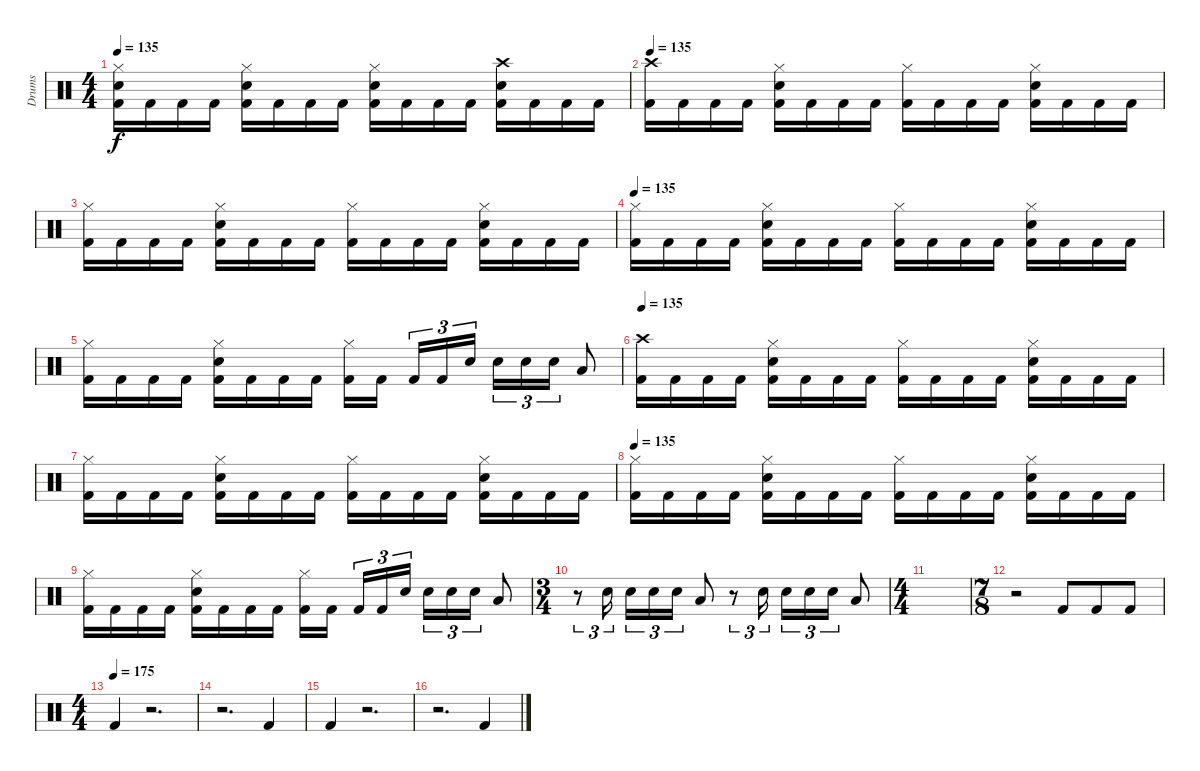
\track ("Drums" "Drums") {instrument percussion}
\staff {score}
\articulation defaults
\ts (4 4)
\tempo 135
\clef neutral
\ks c
("Hi-Hat (closed)" "Electric Snare (hit)" "Kick (hit) 2").16{dy f} "Kick (hit) 2".16 "Kick (hit) 2".16 "Kick (hit) 2".16 ("Hi-Hat (closed)" "Electric Snare (hit)" "Kick (hit) 2").16 "Kick (hit) 2".16 "Kick (hit) 2".16 "Kick (hit) 2".16 ("Hi-Hat (closed)" "Electric Snare (hit)" "Kick (hit) 2").16 "Kick (hit) 2".16 "Kick (hit) 2".16 "Kick (hit) 2".16 ("Crash high (hit)" "Electric Snare (hit)" "Kick (hit) 2").16 "Kick (hit) 2".16 "Kick (hit) 2".16 "Kick (hit) 2".16 |
\tempo 135
("Crash high (hit)" "Kick (hit) 2").16 "Kick (hit) 2".16 "Kick (hit) 2".16 "Kick (hit) 2".16 ("Hi-Hat (closed)" "Electric Snare (hit)" "Kick (hit) 2").16 "Kick (hit) 2".16 "Kick (hit) 2".16 "Kick (hit) 2".16 ("Hi-Hat (closed)" "Kick (hit) 2").16 "Kick (hit) 2".16 "Kick (hit) 2".16 "Kick (hit) 2".16 ("Hi-Hat (closed)" "Electric Snare (hit)" "Kick (hit) 2").16 "Kick (hit) 2".16 "Kick (hit) 2".16 "Kick (hit) 2".16 |
("Hi-Hat (closed)" "Kick (hit) 2").16 "Kick (hit) 2".16 "Kick (hit) 2".16 "Kick (hit) 2".16 ("Hi-Hat (closed)" "Electric Snare (hit)" "Kick (hit) 2").16 "Kick (hit) 2".16 "Kick (hit) 2".16 "Kick (hit) 2".16 ("Hi-Hat (closed)" "Kick (hit) 2").16 "Kick (hit) 2".16 "Kick (hit) 2".16 "Kick (hit) 2".16 ("Hi-Hat (closed)" "Electric Snare (hit)" "Kick (hit) 2").16 "Kick (hit) 2".16 "Kick (hit) 2".16 "Kick (hit) 2".16 |
\tempo 135
("Hi-Hat (closed)" "Kick (hit) 2").16 "Kick (hit) 2".16 "Kick (hit) 2".16 "Kick (hit) 2".16 ("Hi-Hat (closed)" "Electric Snare (hit)" "Kick (hit) 2").16 "Kick (hit) 2".16 "Kick (hit) 2".16 "Kick (hit) 2".16 ("Hi-Hat (closed)" "Kick (hit) 2").16 "Kick (hit) 2".16 "Kick (hit) 2".16 "Kick (hit) 2".16 ("Hi-Hat (closed)" "Electric Snare (hit)" "Kick (hit) 2").16 "Kick (hit) 2".16 "Kick (hit) 2".16 "Kick (hit) 2".16 |
("Hi-Hat (closed)" "Kick (hit) 2").16 "Kick (hit) 2".16 "Kick (hit) 2".16 "Kick (hit) 2".16 ("Hi-Hat (closed)" "Electric Snare (hit)" "Kick (hit) 2").16 "Kick (hit) 2".16 "Kick (hit) 2".16 "Kick (hit) 2".16 ("Hi-Hat (closed)" "Kick (hit) 2").16 "Kick (hit) 2".16 "Kick (hit) 2".16{tu (3 2)} "Kick (hit) 2".16{tu (3 2)} "Electric Snare (hit)".16{tu (3 2)} "Electric Snare (hit)".16{tu (3 2)} "Electric Snare (hit)".16{tu (3 2)} "Electric Snare (hit)".16{tu (3 2)} "Low Tom (hit)".8 |
\tempo 135
("Crash high (hit)" "Kick (hit) 2").16 "Kick (hit) 2".16 "Kick (hit) 2".16 "Kick (hit) 2".16 ("Hi-Hat (closed)" "Electric Snare (hit)" "Kick (hit) 2").16 "Kick (hit) 2".16 "Kick (hit) 2".16 "Kick (hit) 2".16 ("Hi-Hat (closed)" "Kick (hit) 2").16 "Kick (hit) 2".16 "Kick (hit) 2".16 "Kick (hit) 2".16 ("Hi-Hat (closed)" "Electric Snare (hit)" "Kick (hit) 2").16 "Kick (hit) 2".16 "Kick (hit) 2".16 "Kick (hit) 2".16 |
("Hi-Hat (closed)" "Kick (hit) 2").16 "Kick (hit) 2".16 "Kick (hit) 2".16 "Kick (hit) 2".16 ("Hi-Hat (closed)" "Electric Snare (hit)" "Kick (hit) 2").16 "Kick (hit) 2".16 "Kick (hit) 2".16 "Kick (hit) 2".16 ("Hi-Hat (closed)" "Kick (hit) 2").16 "Kick (hit) 2".16 "Kick (hit) 2".16 "Kick (hit) 2".16 ("Hi-Hat (closed)" "Electric Snare (hit)" "Kick (hit) 2").16 "Kick (hit) 2".16 "Kick (hit) 2".16 "Kick (hit) 2".16 |
\tempo 135
("Hi-Hat (closed)" "Kick (hit) 2").16 "Kick (hit) 2".16 "Kick (hit) 2".16 "Kick (hit) 2".16 ("Hi-Hat (closed)" "Electric Snare (hit)" "Kick (hit) 2").16 "Kick (hit) 2".16 "Kick (hit) 2".16 "Kick (hit) 2".16 ("Hi-Hat (closed)" "Kick (hit) 2").16 "Kick (hit) 2".16 "Kick (hit) 2".16 "Kick (hit) 2".16 ("Hi-Hat (closed)" "Electric Snare (hit)" "Kick (hit) 2").16 "Kick (hit) 2".16 "Kick (hit) 2".16 "Kick (hit) 2".16 |
("Hi-Hat (closed)" "Kick (hit) 2").16 "Kick (hit) 2".16 "Kick (hit) 2".16 "Kick (hit) 2".16 ("Hi-Hat (closed)" "Electric Snare (hit)" "Kick (hit) 2").16 "Kick (hit) 2".16 "Kick (hit) 2".16 "Kick (hit) 2".16 ("Hi-Hat (closed)" "Kick (hit) 2").16 "Kick (hit) 2".16 "Kick (hit) 2".16{tu (3 2)} "Kick (hit) 2".16{tu (3 2)} "Electric Snare (hit)".16{tu (3 2)} "Electric Snare (hit)".16{tu (3 2)} "Electric Snare (hit)".16{tu (3 2)} "Electric Snare (hit)".16{tu (3 2)} "Low Tom (hit)".8 |
\ts (3 4)
r.8{tu (3 2)} "Electric Snare (hit)".16{tu (3 2)} "Electric Snare (hit)".16{tu (3 2)} "Electric Snare (hit)".16{tu (3 2)} "Electric Snare (hit)".16{tu (3 2)} "Low Tom (hit)".8 r.8{tu (3 2)} "Electric Snare (hit)".16{tu (3 2)} "Electric Snare (hit)".16{tu (3 2)} "Electric Snare (hit)".16{tu (3 2)} "Electric Snare (hit)".16{tu (3 2)} "Low Tom (hit)".8 |
\ts (4 4)
|
\ts (7 8)
r.2 "Kick (hit) 2".8 "Kick (hit) 2".8 "Kick (hit) 2".8 |
\ts (4 4)
\tempo (175)
"Kick (hit) 2".4 r.2{d} |
r.2{d} "Kick (hit) 2".4 |
"Kick (hit) 2".4 r.2{d} |
r.2{d} "Kick (hit) 2".4
